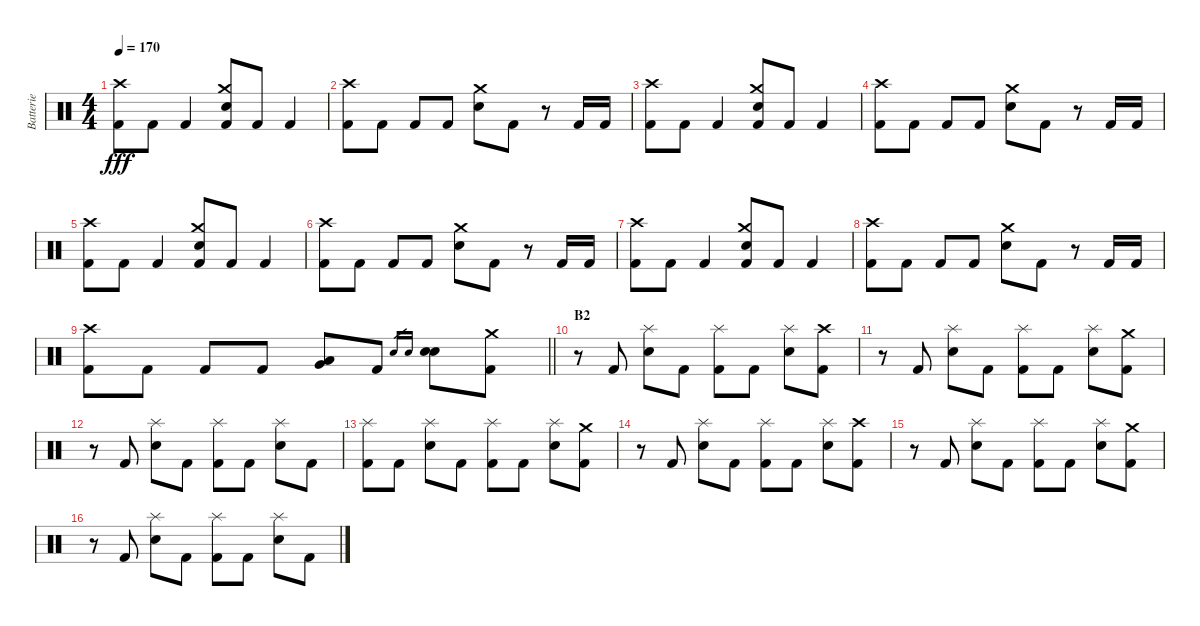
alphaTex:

\track ("Batterie" "Batterie") {instrument percussion}
\staff {score}
\articulation defaults
\ts (4 4)
\tempo 170
\clef neutral
\ks c
("Crash high (hit)" "Kick (hit) 2").8{dy fff} "Kick (hit) 2".8 "Kick (hit) 2".4 ("Crash medium (hit)" "Electric Snare (hit)" "Kick (hit) 2").8 "Kick (hit) 2".8 "Kick (hit) 2".4 |
("Crash high (hit)" "Kick (hit) 2").8 "Kick (hit) 2".8 "Kick (hit) 2".8 "Kick (hit) 2".8 ("Crash medium (hit)" "Electric Snare (hit)").8 "Kick (hit) 2".8 r.8 "Kick (hit) 2".16 "Kick (hit) 2".16 |
("Crash high (hit)" "Kick (hit) 2").8 "Kick (hit) 2".8 "Kick (hit) 2".4 ("Crash medium (hit)" "Electric Snare (hit)" "Kick (hit) 2").8 "Kick (hit) 2".8 "Kick (hit) 2".4 |
("Crash high (hit)" "Kick (hit) 2").8 "Kick (hit) 2".8 "Kick (hit) 2".8 "Kick (hit) 2".8 ("Crash medium (hit)" "Electric Snare (hit)").8 "Kick (hit) 2".8 r.8 "Kick (hit) 2".16 "Kick (hit) 2".16 |
("Crash high (hit)" "Kick (hit) 2").8 "Kick (hit) 2".8 "Kick (hit) 2".4 ("Crash medium (hit)" "Electric Snare (hit)" "Kick (hit) 2").8 "Kick (hit) 2".8 "Kick (hit) 2".4 |
("Crash high (hit)" "Kick (hit) 2").8 "Kick (hit) 2".8 "Kick (hit) 2".8 "Kick (hit) 2".8 ("Crash medium (hit)" "Electric Snare (hit)").8 "Kick (hit) 2".8 r.8 "Kick (hit) 2".16 "Kick (hit) 2".16 |
("Crash high (hit)" "Kick (hit) 2").8 "Kick (hit) 2".8 "Kick (hit) 2".4 ("Crash medium (hit)" "Electric Snare (hit)" "Kick (hit) 2").8 "Kick (hit) 2".8 "Kick (hit) 2".4 |
("Crash high (hit)" "Kick (hit) 2").8 "Kick (hit) 2".8 "Kick (hit) 2".8 "Kick (hit) 2".8 ("Crash medium (hit)" "Electric Snare (hit)").8 "Kick (hit) 2".8 r.8 "Kick (hit) 2".16 "Kick (hit) 2".16 |
\barLineRight lightlight
("Crash high (hit)" "Kick (hit) 2").8 "Kick (hit) 2".8 "Kick (hit) 2".8 "Kick (hit) 2".8 ("Very Low Tom (hit)" "Low Floor Tom (hit)").8 "Kick (hit) 2".8 "Electric Snare (hit)".16{gr} "Electric Snare (hit)".16{gr} ("Electric Snare (hit)" "Electric Snare (hit)").8 ("Crash medium (hit)" "Kick (hit) 2").8 |
\section ("" "B2")
r.8 "Kick (hit) 2".8 ("Splash (hit)" "Electric Snare (hit)").8 "Kick (hit) 2".8 ("Splash (hit)" "Kick (hit) 2").8 "Kick (hit) 2".8 ("Splash (hit)" "Electric Snare (hit)").8 ("Crash high (hit)" "Kick (hit) 2").8 |
r.8 "Kick (hit) 2".8 ("Splash (hit)" "Electric Snare (hit)").8 "Kick (hit) 2".8 ("Splash (hit)" "Kick (hit) 2").8 "Kick (hit) 2".8 ("Splash (hit)" "Electric Snare (hit)").8 ("Crash medium (hit)" "Kick (hit) 2").8 |
r.8 "Kick (hit) 2".8 ("Splash (hit)" "Electric Snare (hit)").8 "Kick (hit) 2".8 ("Splash (hit)" "Kick (hit) 2").8 "Kick (hit) 2".8 ("Splash (hit)" "Electric Snare (hit)").8 "Kick (hit) 2".8 |
("Splash (hit)" "Kick (hit) 2").8 "Kick (hit) 2".8 ("Splash (hit)" "Electric Snare (hit)").8 "Kick (hit) 2".8 ("Splash (hit)" "Kick (hit) 2").8 "Kick (hit) 2".8 ("Splash (hit)" "Electric Snare (hit)").8 ("Crash medium (hit)" "Kick (hit) 2").8 |
r.8 "Kick (hit) 2".8 ("Splash (hit)" "Electric Snare (hit)").8 "Kick (hit) 2".8 ("Splash (hit)" "Kick (hit) 2").8 "Kick (hit) 2".8 ("Splash (hit)" "Electric Snare (hit)").8 ("Crash high (hit)" "Kick (hit) 2").8 |
r.8 "Kick (hit) 2".8 ("Splash (hit)" "Electric Snare (hit)").8 "Kick (hit) 2".8 ("Splash (hit)" "Kick (hit) 2").8 "Kick (hit) 2".8 ("Splash (hit)" "Electric Snare (hit)").8 ("Crash medium (hit)" "Kick (hit) 2").8 |
r.8 "Kick (hit) 2".8 ("Splash (hit)" "Electric Snare (hit)").8 "Kick (hit) 2".8 ("Splash (hit)" "Kick (hit) 2").8 "Kick (hit) 2".8 ("Splash (hit)" "Electric Snare (hit)").8 "Kick (hit) 2".8
